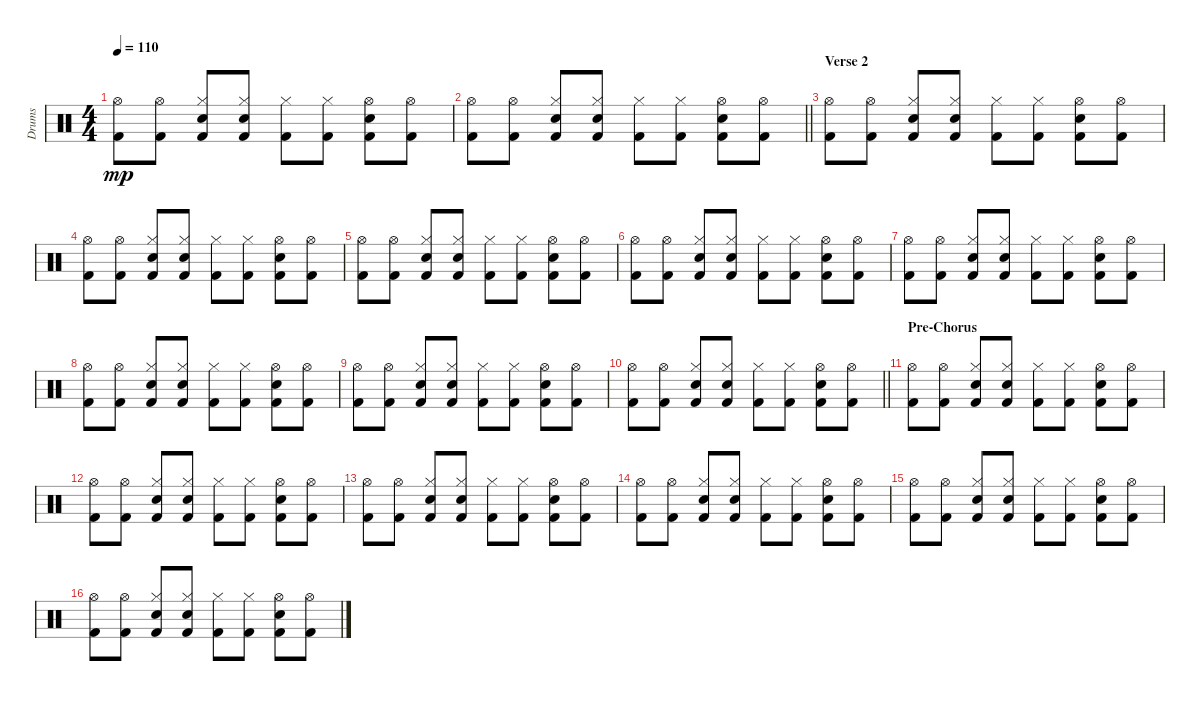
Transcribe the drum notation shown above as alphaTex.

\track ("Drums" "Drums") {instrument percussion}
\staff {score}
\articulation defaults
\ts (4 4)
\tempo 110
\clef neutral
\ks c
("Hi-Hat (open)" "Kick (hit) 2").8{dy mp} ("Hi-Hat (open)" "Kick (hit) 2").8 ("Hi-Hat (closed)" "Electric Snare (hit)" "Kick (hit) 2").8 ("Hi-Hat (closed)" "Electric Snare (hit)" "Kick (hit) 2").8 ("Hi-Hat (closed)" "Kick (hit) 2").8 ("Hi-Hat (closed)" "Kick (hit) 2").8 ("Hi-Hat (open)" "Electric Snare (hit)" "Kick (hit) 2").8 ("Hi-Hat (open)" "Kick (hit) 2").8 |
\barLineRight lightlight
("Hi-Hat (open)" "Kick (hit) 2").8 ("Hi-Hat (open)" "Kick (hit) 2").8 ("Hi-Hat (closed)" "Electric Snare (hit)" "Kick (hit) 2").8 ("Hi-Hat (closed)" "Electric Snare (hit)" "Kick (hit) 2").8 ("Hi-Hat (closed)" "Kick (hit) 2").8 ("Hi-Hat (closed)" "Kick (hit) 2").8 ("Hi-Hat (open)" "Electric Snare (hit)" "Kick (hit) 2").8 ("Hi-Hat (open)" "Kick (hit) 2").8 |
\section ("" "Verse 2")
("Hi-Hat (open)" "Kick (hit) 2").8 ("Hi-Hat (open)" "Kick (hit) 2").8 ("Hi-Hat (closed)" "Electric Snare (hit)" "Kick (hit) 2").8 ("Hi-Hat (closed)" "Electric Snare (hit)" "Kick (hit) 2").8 ("Hi-Hat (closed)" "Kick (hit) 2").8 ("Hi-Hat (closed)" "Kick (hit) 2").8 ("Hi-Hat (open)" "Electric Snare (hit)" "Kick (hit) 2").8 ("Hi-Hat (open)" "Kick (hit) 2").8 |
("Hi-Hat (open)" "Kick (hit) 2").8 ("Hi-Hat (open)" "Kick (hit) 2").8 ("Hi-Hat (closed)" "Electric Snare (hit)" "Kick (hit) 2").8 ("Hi-Hat (closed)" "Electric Snare (hit)" "Kick (hit) 2").8 ("Hi-Hat (closed)" "Kick (hit) 2").8 ("Hi-Hat (closed)" "Kick (hit) 2").8 ("Hi-Hat (open)" "Electric Snare (hit)" "Kick (hit) 2").8 ("Hi-Hat (open)" "Kick (hit) 2").8 |
("Hi-Hat (open)" "Kick (hit) 2").8 ("Hi-Hat (open)" "Kick (hit) 2").8 ("Hi-Hat (closed)" "Electric Snare (hit)" "Kick (hit) 2").8 ("Hi-Hat (closed)" "Electric Snare (hit)" "Kick (hit) 2").8 ("Hi-Hat (closed)" "Kick (hit) 2").8 ("Hi-Hat (closed)" "Kick (hit) 2").8 ("Hi-Hat (open)" "Electric Snare (hit)" "Kick (hit) 2").8 ("Hi-Hat (open)" "Kick (hit) 2").8 |
("Hi-Hat (open)" "Kick (hit) 2").8 ("Hi-Hat (open)" "Kick (hit) 2").8 ("Hi-Hat (closed)" "Electric Snare (hit)" "Kick (hit) 2").8 ("Hi-Hat (closed)" "Electric Snare (hit)" "Kick (hit) 2").8 ("Hi-Hat (closed)" "Kick (hit) 2").8 ("Hi-Hat (closed)" "Kick (hit) 2").8 ("Hi-Hat (open)" "Electric Snare (hit)" "Kick (hit) 2").8 ("Hi-Hat (open)" "Kick (hit) 2").8 |
("Hi-Hat (open)" "Kick (hit) 2").8 ("Hi-Hat (open)" "Kick (hit) 2").8 ("Hi-Hat (closed)" "Electric Snare (hit)" "Kick (hit) 2").8 ("Hi-Hat (closed)" "Electric Snare (hit)" "Kick (hit) 2").8 ("Hi-Hat (closed)" "Kick (hit) 2").8 ("Hi-Hat (closed)" "Kick (hit) 2").8 ("Hi-Hat (open)" "Electric Snare (hit)" "Kick (hit) 2").8 ("Hi-Hat (open)" "Kick (hit) 2").8 |
("Hi-Hat (open)" "Kick (hit) 2").8 ("Hi-Hat (open)" "Kick (hit) 2").8 ("Hi-Hat (closed)" "Electric Snare (hit)" "Kick (hit) 2").8 ("Hi-Hat (closed)" "Electric Snare (hit)" "Kick (hit) 2").8 ("Hi-Hat (closed)" "Kick (hit) 2").8 ("Hi-Hat (closed)" "Kick (hit) 2").8 ("Hi-Hat (open)" "Electric Snare (hit)" "Kick (hit) 2").8 ("Hi-Hat (open)" "Kick (hit) 2").8 |
("Hi-Hat (open)" "Kick (hit) 2").8 ("Hi-Hat (open)" "Kick (hit) 2").8 ("Hi-Hat (closed)" "Electric Snare (hit)" "Kick (hit) 2").8 ("Hi-Hat (closed)" "Electric Snare (hit)" "Kick (hit) 2").8 ("Hi-Hat (closed)" "Kick (hit) 2").8 ("Hi-Hat (closed)" "Kick (hit) 2").8 ("Hi-Hat (open)" "Electric Snare (hit)" "Kick (hit) 2").8 ("Hi-Hat (open)" "Kick (hit) 2").8 |
\barLineRight lightlight
("Hi-Hat (open)" "Kick (hit) 2").8 ("Hi-Hat (open)" "Kick (hit) 2").8 ("Hi-Hat (closed)" "Electric Snare (hit)" "Kick (hit) 2").8 ("Hi-Hat (closed)" "Electric Snare (hit)" "Kick (hit) 2").8 ("Hi-Hat (closed)" "Kick (hit) 2").8 ("Hi-Hat (closed)" "Kick (hit) 2").8 ("Hi-Hat (open)" "Electric Snare (hit)" "Kick (hit) 2").8 ("Hi-Hat (open)" "Kick (hit) 2").8 |
\section ("" "Pre-Chorus")
("Hi-Hat (open)" "Kick (hit) 2").8 ("Hi-Hat (open)" "Kick (hit) 2").8 ("Hi-Hat (closed)" "Electric Snare (hit)" "Kick (hit) 2").8 ("Hi-Hat (closed)" "Electric Snare (hit)" "Kick (hit) 2").8 ("Hi-Hat (closed)" "Kick (hit) 2").8 ("Hi-Hat (closed)" "Kick (hit) 2").8 ("Hi-Hat (open)" "Electric Snare (hit)" "Kick (hit) 2").8 ("Hi-Hat (open)" "Kick (hit) 2").8 |
("Hi-Hat (open)" "Kick (hit) 2").8 ("Hi-Hat (open)" "Kick (hit) 2").8 ("Hi-Hat (closed)" "Electric Snare (hit)" "Kick (hit) 2").8 ("Hi-Hat (closed)" "Electric Snare (hit)" "Kick (hit) 2").8 ("Hi-Hat (closed)" "Kick (hit) 2").8 ("Hi-Hat (closed)" "Kick (hit) 2").8 ("Hi-Hat (open)" "Electric Snare (hit)" "Kick (hit) 2").8 ("Hi-Hat (open)" "Kick (hit) 2").8 |
("Hi-Hat (open)" "Kick (hit) 2").8 ("Hi-Hat (open)" "Kick (hit) 2").8 ("Hi-Hat (closed)" "Electric Snare (hit)" "Kick (hit) 2").8 ("Hi-Hat (closed)" "Electric Snare (hit)" "Kick (hit) 2").8 ("Hi-Hat (closed)" "Kick (hit) 2").8 ("Hi-Hat (closed)" "Kick (hit) 2").8 ("Hi-Hat (open)" "Electric Snare (hit)" "Kick (hit) 2").8 ("Hi-Hat (open)" "Kick (hit) 2").8 |
("Hi-Hat (open)" "Kick (hit) 2").8 ("Hi-Hat (open)" "Kick (hit) 2").8 ("Hi-Hat (closed)" "Electric Snare (hit)" "Kick (hit) 2").8 ("Hi-Hat (closed)" "Electric Snare (hit)" "Kick (hit) 2").8 ("Hi-Hat (closed)" "Kick (hit) 2").8 ("Hi-Hat (closed)" "Kick (hit) 2").8 ("Hi-Hat (open)" "Electric Snare (hit)" "Kick (hit) 2").8 ("Hi-Hat (open)" "Kick (hit) 2").8 |
("Hi-Hat (open)" "Kick (hit) 2").8 ("Hi-Hat (open)" "Kick (hit) 2").8 ("Hi-Hat (closed)" "Electric Snare (hit)" "Kick (hit) 2").8 ("Hi-Hat (closed)" "Electric Snare (hit)" "Kick (hit) 2").8 ("Hi-Hat (closed)" "Kick (hit) 2").8 ("Hi-Hat (closed)" "Kick (hit) 2").8 ("Hi-Hat (open)" "Electric Snare (hit)" "Kick (hit) 2").8 ("Hi-Hat (open)" "Kick (hit) 2").8 |
("Hi-Hat (open)" "Kick (hit) 2").8 ("Hi-Hat (open)" "Kick (hit) 2").8 ("Hi-Hat (closed)" "Electric Snare (hit)" "Kick (hit) 2").8 ("Hi-Hat (closed)" "Electric Snare (hit)" "Kick (hit) 2").8 ("Hi-Hat (closed)" "Kick (hit) 2").8 ("Hi-Hat (closed)" "Kick (hit) 2").8 ("Hi-Hat (open)" "Electric Snare (hit)" "Kick (hit) 2").8 ("Hi-Hat (open)" "Kick (hit) 2").8
